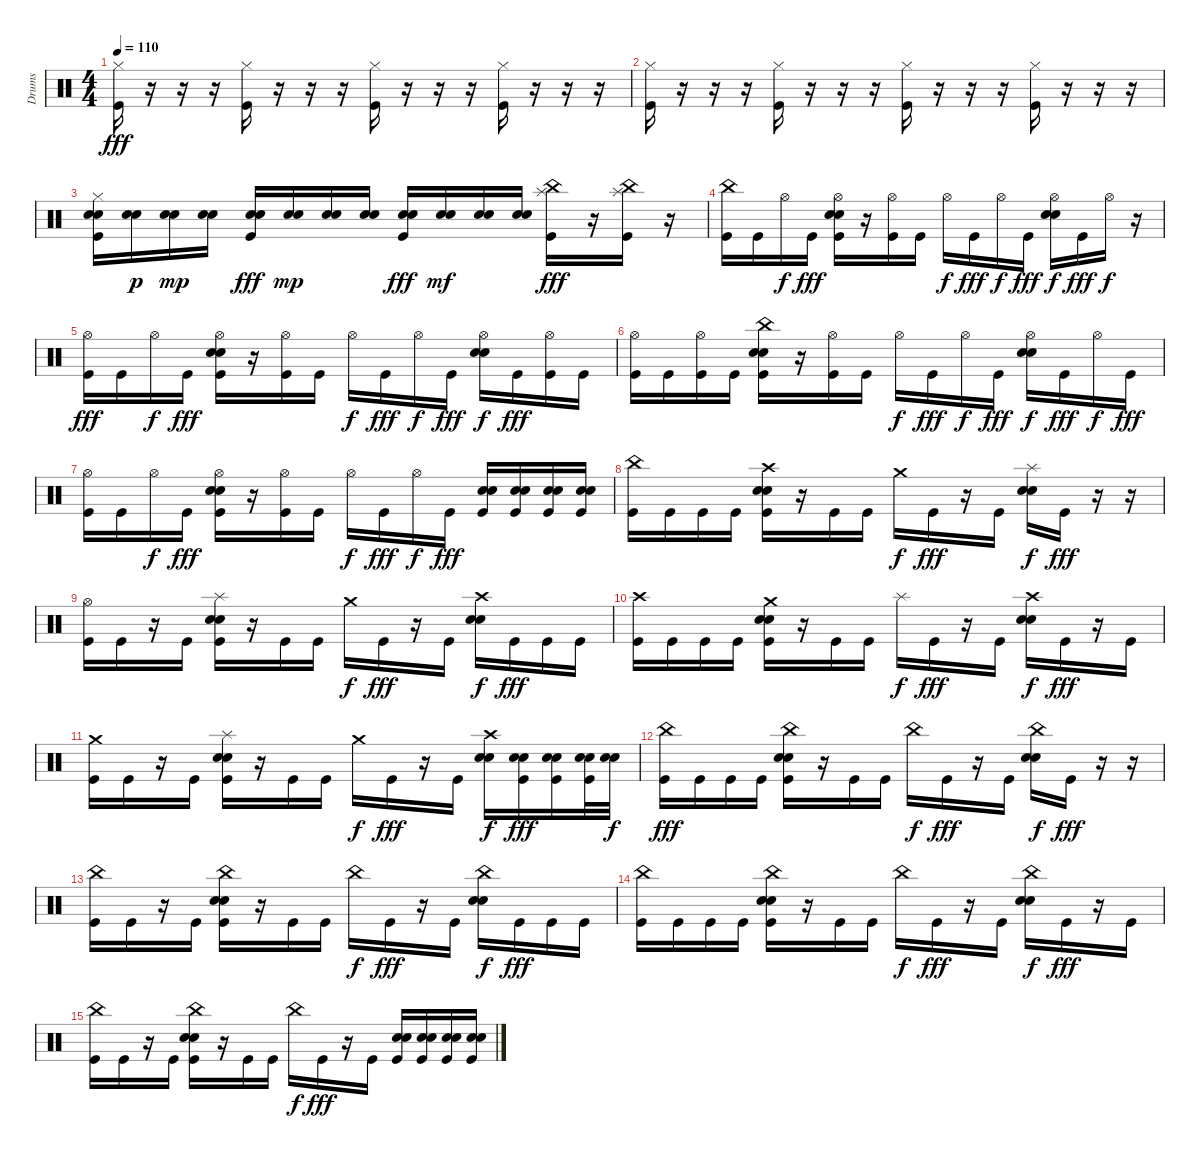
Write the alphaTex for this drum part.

\track ("Drums" "Drums") {instrument percussion}
\staff {score}
\articulation defaults
\ts (4 4)
\tempo 110
\clef neutral
\ks c
("Hi-Hat (closed)" "Kick (hit)").16{dy fff} r.16 r.16 r.16 ("Hi-Hat (closed)" "Kick (hit)").16 r.16 r.16 r.16 ("Hi-Hat (closed)" "Kick (hit)").16 r.16 r.16 r.16 ("Hi-Hat (closed)" "Kick (hit)").16 r.16 r.16 r.16 |
("Hi-Hat (closed)" "Kick (hit)").16 r.16 r.16 r.16 ("Hi-Hat (closed)" "Kick (hit)").16 r.16 r.16 r.16 ("Hi-Hat (closed)" "Kick (hit)").16 r.16 r.16 r.16 ("Hi-Hat (closed)" "Kick (hit)").16 r.16 r.16 r.16 |
("Hi-Hat (closed)" "Snare (hit) 2" "Electric Snare (hit)" "Kick (hit)").16 ("Snare (hit) 2" "Electric Snare (hit)").16{dy p} ("Snare (hit) 2" "Electric Snare (hit)").16{dy mp} ("Snare (hit) 2" "Electric Snare (hit)").16 ("Snare (hit) 2" "Electric Snare (hit)" "Kick (hit)").16{dy fff} ("Snare (hit) 2" "Electric Snare (hit)").16{dy mp} ("Snare (hit) 2" "Electric Snare (hit)").16 ("Snare (hit) 2" "Electric Snare (hit)").16 ("Snare (hit) 2" "Electric Snare (hit)" "Kick (hit)").16{dy fff} ("Snare (hit) 2" "Electric Snare (hit)").16{dy mf} ("Snare (hit) 2" "Electric Snare (hit)").16 ("Snare (hit) 2" "Electric Snare (hit)").16 ("China (hit)" "Splash (hit)" "Kick (hit)").16{dy fff} r.16 ("China (hit)" "Splash (hit)" "Kick (hit)").16 r.16 |
("China (hit)" "Kick (hit)").16 "Kick (hit)".16 "Hi-Hat (open)".16{dy f} "Kick (hit)".16{dy fff} ("Hi-Hat (open)" "Electric Snare (hit)" "Snare (hit) 2" "Kick (hit)").16 r.16 ("Hi-Hat (open)" "Kick (hit)").16 "Kick (hit)".16 "Hi-Hat (open)".16{dy f} "Kick (hit)".16{dy fff} "Hi-Hat (open)".16{dy f} "Kick (hit)".16{dy fff} ("Hi-Hat (open)" "Snare (hit) 2" "Electric Snare (hit)").16{dy f} "Kick (hit)".16{dy fff} "Hi-Hat (open)".16{dy f} r.16 |
("Hi-Hat (open)" "Kick (hit)").16{dy fff} "Kick (hit)".16 "Hi-Hat (open)".16{dy f} "Kick (hit)".16{dy fff} ("Hi-Hat (open)" "Electric Snare (hit)" "Snare (hit) 2" "Kick (hit)").16 r.16 ("Hi-Hat (open)" "Kick (hit)").16 "Kick (hit)".16 "Hi-Hat (open)".16{dy f} "Kick (hit)".16{dy fff} "Hi-Hat (open)".16{dy f} "Kick (hit)".16{dy fff} ("Hi-Hat (open)" "Snare (hit) 2" "Electric Snare (hit)").16{dy f} "Kick (hit)".16{dy fff} ("Hi-Hat (open)" "Kick (hit)").16 "Kick (hit)".16 |
("Hi-Hat (open)" "Kick (hit)").16 "Kick (hit)".16 ("Hi-Hat (open)" "Kick (hit)").16 "Kick (hit)".16 ("China (hit)" "Electric Snare (hit)" "Snare (hit) 2" "Kick (hit)").16 r.16 ("Hi-Hat (open)" "Kick (hit)").16 "Kick (hit)".16 "Hi-Hat (open)".16{dy f} "Kick (hit)".16{dy fff} "Hi-Hat (open)".16{dy f} "Kick (hit)".16{dy fff} ("Hi-Hat (open)" "Snare (hit) 2" "Electric Snare (hit)").16{dy f} "Kick (hit)".16{dy fff} "Hi-Hat (open)".16{dy f} "Kick (hit)".16{dy fff} |
("Hi-Hat (open)" "Kick (hit)").16 "Kick (hit)".16 "Hi-Hat (open)".16{dy f} "Kick (hit)".16{dy fff} ("Hi-Hat (open)" "Electric Snare (hit)" "Snare (hit) 2" "Kick (hit)").16 r.16 ("Hi-Hat (open)" "Kick (hit)").16 "Kick (hit)".16 "Hi-Hat (open)".16{dy f} "Kick (hit)".16{dy fff} "Hi-Hat (open)".16{dy f} "Kick (hit)".16{dy fff} ("Snare (hit) 2" "Electric Snare (hit)" "Kick (hit)").16 ("Snare (hit) 2" "Electric Snare (hit)" "Kick (hit)").16 ("Snare (hit) 2" "Electric Snare (hit)" "Kick (hit)").16 ("Snare (hit) 2" "Electric Snare (hit)" "Kick (hit)").16 |
("China (hit)" "Kick (hit)").16 "Kick (hit)".16 "Kick (hit)".16 "Kick (hit)".16 ("Crash high (hit)" "Electric Snare (hit)" "Snare (hit) 2" "Kick (hit)").16 r.16 "Kick (hit)".16 "Kick (hit)".16 "Crash medium (hit)".16{dy f} "Kick (hit)".16{dy fff} r.16 "Kick (hit)".16 ("Splash (hit)" "Snare (hit) 2" "Electric Snare (hit)").16{dy f} "Kick (hit)".16{dy fff} r.16 r.16 |
("Hi-Hat (open)" "Kick (hit)").16 "Kick (hit)".16 r.16 "Kick (hit)".16 ("Splash (hit)" "Electric Snare (hit)" "Snare (hit) 2" "Kick (hit)").16 r.16 "Kick (hit)".16 "Kick (hit)".16 "Crash medium (hit)".16{dy f} "Kick (hit)".16{dy fff} r.16 "Kick (hit)".16 ("Crash high (hit)" "Snare (hit) 2" "Electric Snare (hit)").16{dy f} "Kick (hit)".16{dy fff} "Kick (hit)".16 "Kick (hit)".16 |
("Crash high (hit)" "Kick (hit)").16 "Kick (hit)".16 "Kick (hit)".16 "Kick (hit)".16 ("Crash medium (hit)" "Electric Snare (hit)" "Snare (hit) 2" "Kick (hit)").16 r.16 "Kick (hit)".16 "Kick (hit)".16 "Splash (hit)".16{dy f} "Kick (hit)".16{dy fff} r.16 "Kick (hit)".16 ("Crash high (hit)" "Snare (hit) 2" "Electric Snare (hit)").16{dy f} "Kick (hit)".16{dy fff} r.16 "Kick (hit)".16 |
("Crash medium (hit)" "Kick (hit)").16 "Kick (hit)".16 r.16 "Kick (hit)".16 ("Splash (hit)" "Electric Snare (hit)" "Snare (hit) 2" "Kick (hit)").16 r.16 "Kick (hit)".16 "Kick (hit)".16 "Crash medium (hit)".16{dy f} "Kick (hit)".16{dy fff} r.16 "Kick (hit)".16 ("Crash high (hit)" "Snare (hit) 2" "Electric Snare (hit)").16{dy f} ("Snare (hit) 2" "Electric Snare (hit)" "Kick (hit)").16{dy fff} ("Snare (hit) 2" "Electric Snare (hit)" "Kick (hit)").16 ("Snare (hit) 2" "Electric Snare (hit)" "Kick (hit)").32 ("Snare (hit) 2" "Electric Snare (hit)").32{dy f} |
("China (hit)" "Kick (hit)").16{dy fff} "Kick (hit)".16 "Kick (hit)".16 "Kick (hit)".16 ("China (hit)" "Electric Snare (hit)" "Snare (hit) 2" "Kick (hit)").16 r.16 "Kick (hit)".16 "Kick (hit)".16 "China (hit)".16{dy f} "Kick (hit)".16{dy fff} r.16 "Kick (hit)".16 ("China (hit)" "Snare (hit) 2" "Electric Snare (hit)").16{dy f} "Kick (hit)".16{dy fff} r.16 r.16 |
("China (hit)" "Kick (hit)").16 "Kick (hit)".16 r.16 "Kick (hit)".16 ("China (hit)" "Electric Snare (hit)" "Snare (hit) 2" "Kick (hit)").16 r.16 "Kick (hit)".16 "Kick (hit)".16 "China (hit)".16{dy f} "Kick (hit)".16{dy fff} r.16 "Kick (hit)".16 ("China (hit)" "Snare (hit) 2" "Electric Snare (hit)").16{dy f} "Kick (hit)".16{dy fff} "Kick (hit)".16 "Kick (hit)".16 |
("China (hit)" "Kick (hit)").16 "Kick (hit)".16 "Kick (hit)".16 "Kick (hit)".16 ("China (hit)" "Electric Snare (hit)" "Snare (hit) 2" "Kick (hit)").16 r.16 "Kick (hit)".16 "Kick (hit)".16 "China (hit)".16{dy f} "Kick (hit)".16{dy fff} r.16 "Kick (hit)".16 ("China (hit)" "Snare (hit) 2" "Electric Snare (hit)").16{dy f} "Kick (hit)".16{dy fff} r.16 "Kick (hit)".16 |
("China (hit)" "Kick (hit)").16 "Kick (hit)".16 r.16 "Kick (hit)".16 ("China (hit)" "Electric Snare (hit)" "Snare (hit) 2" "Kick (hit)").16 r.16 "Kick (hit)".16 "Kick (hit)".16 "China (hit)".16{dy f} "Kick (hit)".16{dy fff} r.16 "Kick (hit)".16 ("Snare (hit) 2" "Electric Snare (hit)" "Kick (hit)").16 ("Snare (hit) 2" "Electric Snare (hit)" "Kick (hit)").16 ("Snare (hit) 2" "Electric Snare (hit)" "Kick (hit)").16 ("Snare (hit) 2" "Electric Snare (hit)" "Kick (hit)").16
